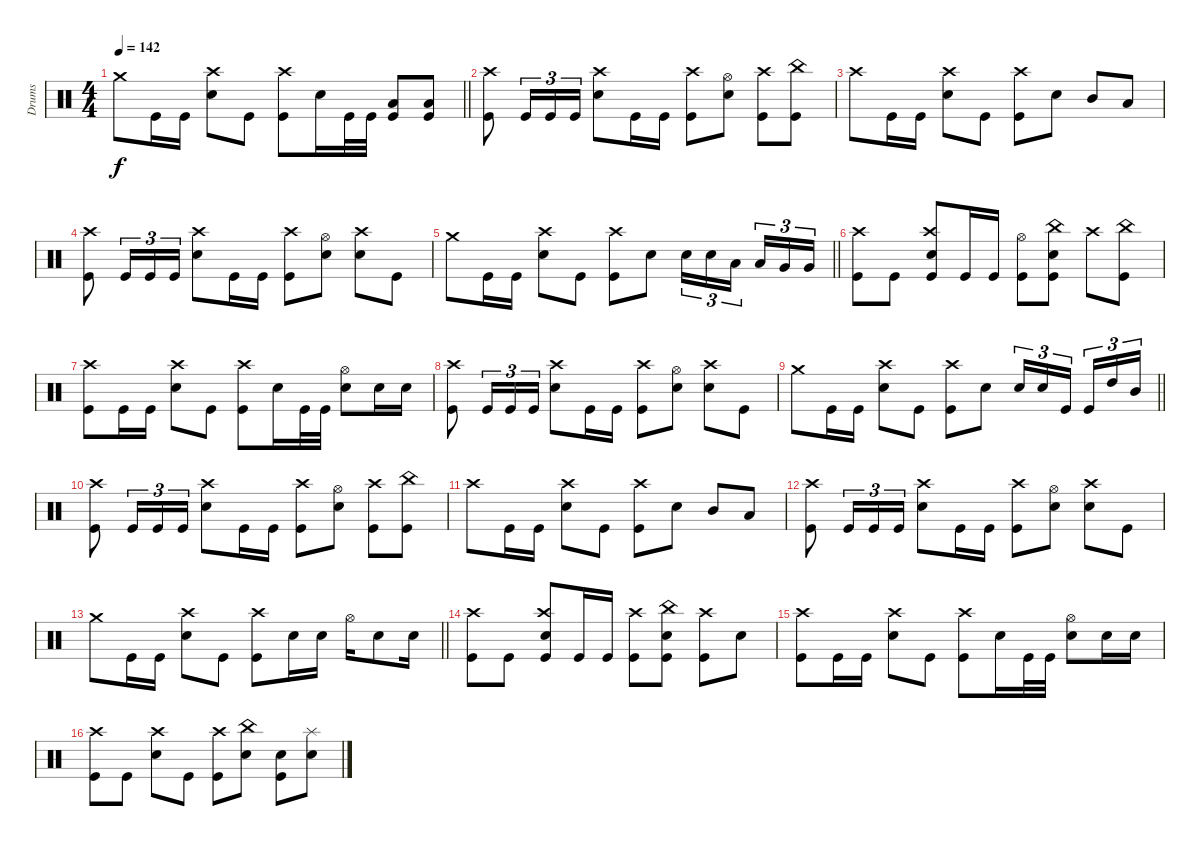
\track ("Drums" "Drums") {instrument percussion}
\staff
\articulation defaults
\ts (4 4)
\tempo 142
\clef neutral
\barLineRight lightlight
\ks c "Crash medium (hit)".8{dy f} "Kick (hit)".16 "Kick (hit)".16
("Crash high (hit)" "Electric Snare (hit)").8 "Kick (hit)".8 ("Crash high (hit)" "Kick (hit)").8 "Electric Snare (hit)".16 "Kick (hit)".32 "Kick (hit)".32 ("Low Floor Tom (hit)" "Kick (hit)").8 ("Low Floor Tom (hit)" "Kick (hit)").8 |
("Crash high (hit)" "Kick (hit)").8 "Kick (hit)".16{tu (3 2)} "Kick (hit)".16{tu (3 2)} "Kick (hit)".16{tu (3 2)} ("Crash high (hit)" "Electric Snare (hit)").8 "Kick (hit)".16 "Kick (hit)".16 ("Crash high (hit)" "Kick (hit)").8 ("Hi-Hat (open)" "Electric Snare (hit)").8 ("Crash high (hit)" "Kick (hit)").8 ("China (hit)" "Kick (hit)").8 |
"Crash high (hit)".8 "Kick (hit)".16 "Kick (hit)".16 ("Crash high (hit)" "Electric Snare (hit)").8 "Kick (hit)".8 ("Crash high (hit)" "Kick (hit)").8 "Electric Snare (hit)".8 "Mid Tom (hit)".8 "Low Tom (hit)".8 |
("Crash high (hit)" "Kick (hit)").8 "Kick (hit)".16{tu (3 2)} "Kick (hit)".16{tu (3 2)} "Kick (hit)".16{tu (3 2)} ("Crash high (hit)" "Electric Snare (hit)").8 "Kick (hit)".16 "Kick (hit)".16 ("Crash high (hit)" "Kick (hit)").8 ("Hi-Hat (open)" "Electric Snare (hit)").8 ("Crash high (hit)" "Electric Snare (hit)").8 "Kick (hit)".8 |
\barLineRight lightlight "Crash medium (hit)".8 "Kick (hit)".16 "Kick (hit)".16
("Crash high (hit)" "Electric Snare (hit)").8 "Kick (hit)".8 ("Crash high (hit)" "Kick (hit)").8 "Electric Snare (hit)".8 "Electric Snare (hit)".16{tu (3 2)} "Electric Snare (hit)".16{tu (3 2)} "Low Tom (hit)".16{tu (3 2) beam splitsecondary} "Low Tom (hit)".16{tu (3 2)} "Very Low Tom (hit)".16{tu (3 2)} "Very Low Tom (hit)".16{tu (3 2)} |
("Crash high (hit)" "Kick (hit)").8 "Kick (hit)".8 ("Crash high (hit)" "Electric Snare (hit)" "Kick (hit)").8 "Kick (hit)".16 "Kick (hit)".16 ("Hi-Hat (open)" "Kick (hit)").8 ("China (hit)" "Electric Snare (hit)" "Kick (hit)").8 "Crash high (hit)".8 ("China (hit)" "Kick (hit)").8 |
("Crash high (hit)" "Kick (hit)").8 "Kick (hit)".16 "Kick (hit)".16 ("Crash high (hit)" "Electric Snare (hit)").8 "Kick (hit)".8 ("Crash high (hit)" "Kick (hit)").8 "Electric Snare (hit)".16 "Kick (hit)".32 "Kick (hit)".32 ("Hi-Hat (open)" "Electric Snare (hit)").8 "Electric Snare (hit)".16 "Electric Snare (hit)".16 |
("Crash high (hit)" "Kick (hit)").8 "Kick (hit)".16{tu (3 2)} "Kick (hit)".16{tu (3 2)} "Kick (hit)".16{tu (3 2)} ("Crash high (hit)" "Electric Snare (hit)").8 "Kick (hit)".16 "Kick (hit)".16 ("Crash high (hit)" "Kick (hit)").8 ("Hi-Hat (open)" "Electric Snare (hit)").8 ("Crash high (hit)" "Electric Snare (hit)").8 "Kick (hit)".8 |
\barLineRight lightlight "Crash medium (hit)".8 "Kick (hit)".16 "Kick (hit)".16
("Crash high (hit)" "Electric Snare (hit)").8 "Kick (hit)".8 ("Crash high (hit)" "Kick (hit)").8 "Electric Snare (hit)".8 "Electric Snare (hit)".16{tu (3 2)} "Electric Snare (hit)".16{tu (3 2)} "Kick (hit)".16{tu (3 2) beam splitsecondary} "Kick (hit)".16{tu (3 2)} "High Tom (hit)".16{tu (3 2)} "Mid Tom (hit)".16{tu (3 2)} |
("Crash high (hit)" "Kick (hit)").8 "Kick (hit)".16{tu (3 2)} "Kick (hit)".16{tu (3 2)} "Kick (hit)".16{tu (3 2)} ("Crash high (hit)" "Electric Snare (hit)").8 "Kick (hit)".16 "Kick (hit)".16 ("Crash high (hit)" "Kick (hit)").8 ("Hi-Hat (open)" "Electric Snare (hit)").8 ("Crash high (hit)" "Kick (hit)").8 ("China (hit)" "Kick (hit)").8 |
"Crash high (hit)".8 "Kick (hit)".16 "Kick (hit)".16 ("Crash high (hit)" "Electric Snare (hit)").8 "Kick (hit)".8 ("Crash high (hit)" "Kick (hit)").8 "Electric Snare (hit)".8 "Mid Tom (hit)".8 "Low Tom (hit)".8 |
("Crash high (hit)" "Kick (hit)").8 "Kick (hit)".16{tu (3 2)} "Kick (hit)".16{tu (3 2)} "Kick (hit)".16{tu (3 2)} ("Crash high (hit)" "Electric Snare (hit)").8 "Kick (hit)".16 "Kick (hit)".16 ("Crash high (hit)" "Kick (hit)").8 ("Hi-Hat (open)" "Electric Snare (hit)").8 ("Crash high (hit)" "Electric Snare (hit)").8 "Kick (hit)".8 |
\barLineRight lightlight "Crash medium (hit)".8 "Kick (hit)".16 "Kick (hit)".16
("Crash high (hit)" "Electric Snare (hit)").8 "Kick (hit)".8 ("Crash high (hit)" "Kick (hit)").8 "Electric Snare (hit)".16 "Electric Snare (hit)".16 "Hi-Hat (open)".16 "Electric Snare (hit)".8 "Electric Snare (hit)".16 |
("Crash high (hit)" "Kick (hit)").8 "Kick (hit)".8 ("Crash high (hit)" "Electric Snare (hit)" "Kick (hit)").8 "Kick (hit)".16 "Kick (hit)".16 ("Crash high (hit)" "Kick (hit)").8 ("China (hit)" "Electric Snare (hit)" "Kick (hit)").8 ("Crash high (hit)" "Kick (hit)").8 "Electric Snare (hit)".8 |
("Crash high (hit)" "Kick (hit)").8 "Kick (hit)".16 "Kick (hit)".16 ("Crash high (hit)" "Electric Snare (hit)").8 "Kick (hit)".8 ("Crash high (hit)" "Kick (hit)").8 "Electric Snare (hit)".16 "Kick (hit)".32 "Kick (hit)".32 ("Hi-Hat (open)" "Electric Snare (hit)").8 "Electric Snare (hit)".16 "Electric Snare (hit)".16 |
("Crash high (hit)" "Kick (hit)").8 "Kick (hit)".8 ("Crash high (hit)" "Electric Snare (hit)").8 "Kick (hit)".8 ("Crash high (hit)" "Kick (hit)").8 ("China (hit)" "Electric Snare (hit)").8 ("Electric Snare (hit)" "Kick (hit)").8 ("Splash (hit)" "Electric Snare (hit)").8
